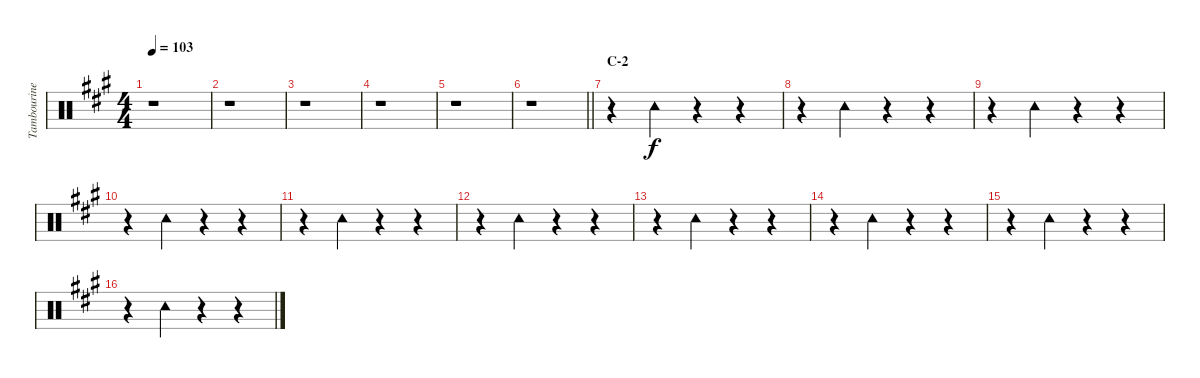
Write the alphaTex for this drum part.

\track ("Tambourine" "Tambourine") {instrument percussion}
\staff {score}
\articulation defaults
\ts (4 4)
\tempo 103
\clef neutral
\ks a
r.1{dy f} |
r.1 |
r.1 |
r.1 |
r.1 |
\barLineRight lightlight
r.1 |
\section ("" "C-2")
r.4 "Tambourine (hit)".4 r.4 r.4 |
r.4 "Tambourine (hit)".4 r.4 r.4 |
r.4 "Tambourine (hit)".4 r.4 r.4 |
r.4 "Tambourine (hit)".4 r.4 r.4 |
r.4 "Tambourine (hit)".4 r.4 r.4 |
r.4 "Tambourine (hit)".4 r.4 r.4 |
r.4 "Tambourine (hit)".4 r.4 r.4 |
r.4 "Tambourine (hit)".4 r.4 r.4 |
r.4 "Tambourine (hit)".4 r.4 r.4 |
r.4 "Tambourine (hit)".4 r.4 r.4
